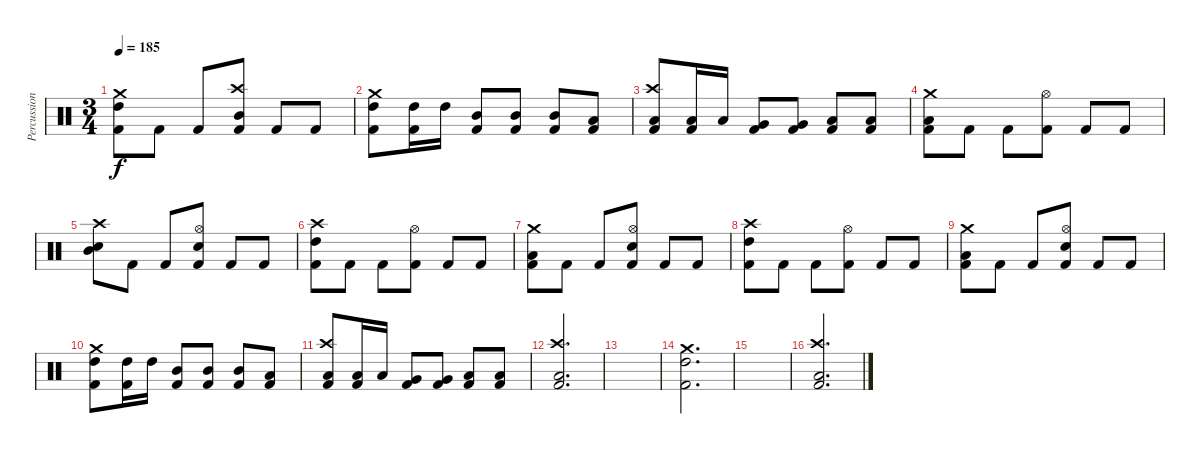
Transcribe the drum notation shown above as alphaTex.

\track ("Percussion" "Percussion") {instrument percussion}
\staff {score}
\articulation defaults
\ts (3 4)
\tempo 185
\clef neutral
\ks c
("Crash medium (hit)" "High Tom (hit)" "Kick (hit) 2").8{dy f} "Kick (hit) 2".8 "Kick (hit) 2".8 ("Crash high (hit)" "Mid Tom (hit)" "Kick (hit) 2").8 "Kick (hit) 2".8 "Kick (hit) 2".8 |
("Crash medium (hit)" "High Tom (hit)" "Kick (hit) 2").8 ("High Tom (hit)" "Kick (hit) 2").16 "High Tom (hit)".16 ("Mid Tom (hit)" "Kick (hit) 2").8 ("Mid Tom (hit)" "Kick (hit) 2").8 ("Mid Tom (hit)" "Kick (hit) 2").8 ("Low Tom (hit)" "Kick (hit) 2").8 |
("Crash high (hit)" "Low Tom (hit)" "Kick (hit) 2").8 ("Low Tom (hit)" "Kick (hit) 2").16 "Low Tom (hit)".16 ("Very Low Tom (hit)" "Kick (hit) 2").8 ("Very Low Tom (hit)" "Kick (hit) 2").8 ("Low Floor Tom (hit)" "Kick (hit) 2").8 ("Low Floor Tom (hit)" "Kick (hit) 2").8 |
("Crash medium (hit)" "Low Tom (hit)" "Kick (hit) 2").8 "Kick (hit) 2".8 "Kick (hit) 2".8 ("Hi-Hat (open)" "Kick (hit) 2").8 "Kick (hit) 2".8 "Kick (hit) 2".8 |
("Crash high (hit)" "Mid Tom (hit)" "Snare (hit) 2").8 "Kick (hit) 2".8 "Kick (hit) 2".8 ("Hi-Hat (open)" "Snare (hit) 2" "Kick (hit) 2").8 "Kick (hit) 2".8 "Kick (hit) 2".8 |
("Crash high (hit)" "High Tom (hit)" "Kick (hit) 2").8 "Kick (hit) 2".8 "Kick (hit) 2".8 ("Hi-Hat (open)" "Kick (hit) 2").8 "Kick (hit) 2".8 "Kick (hit) 2".8 |
("Crash medium (hit)" "Low Tom (hit)" "Kick (hit) 2").8 "Kick (hit) 2".8 "Kick (hit) 2".8 ("Hi-Hat (open)" "Snare (hit) 2" "Kick (hit) 2").8 "Kick (hit) 2".8 "Kick (hit) 2".8 |
("Crash high (hit)" "High Tom (hit)" "Kick (hit) 2").8 "Kick (hit) 2".8 "Kick (hit) 2".8 ("Hi-Hat (open)" "Kick (hit) 2").8 "Kick (hit) 2".8 "Kick (hit) 2".8 |
("Crash medium (hit)" "Low Tom (hit)" "Kick (hit) 2").8 "Kick (hit) 2".8 "Kick (hit) 2".8 ("Hi-Hat (open)" "Snare (hit) 2" "Kick (hit) 2").8 "Kick (hit) 2".8 "Kick (hit) 2".8 |
("Crash medium (hit)" "High Tom (hit)" "Kick (hit) 2").8 ("High Tom (hit)" "Kick (hit) 2").16 "High Tom (hit)".16 ("Mid Tom (hit)" "Kick (hit) 2").8 ("Mid Tom (hit)" "Kick (hit) 2").8 ("Mid Tom (hit)" "Kick (hit) 2").8 ("Low Tom (hit)" "Kick (hit) 2").8 |
("Crash high (hit)" "Low Tom (hit)" "Kick (hit) 2").8 ("Low Tom (hit)" "Kick (hit) 2").16 "Low Tom (hit)".16 ("Very Low Tom (hit)" "Kick (hit) 2").8 ("Very Low Tom (hit)" "Kick (hit) 2").8 ("Low Floor Tom (hit)" "Kick (hit) 2").8 ("Low Floor Tom (hit)" "Kick (hit) 2").8 |
("Crash high (hit)" "Low Tom (hit)" "Kick (hit) 2").2{d} |
|
("Crash medium (hit)" "High Tom (hit)" "Kick (hit) 2").2{d} |
|
("Crash high (hit)" "Low Tom (hit)" "Kick (hit) 2").2{d}
